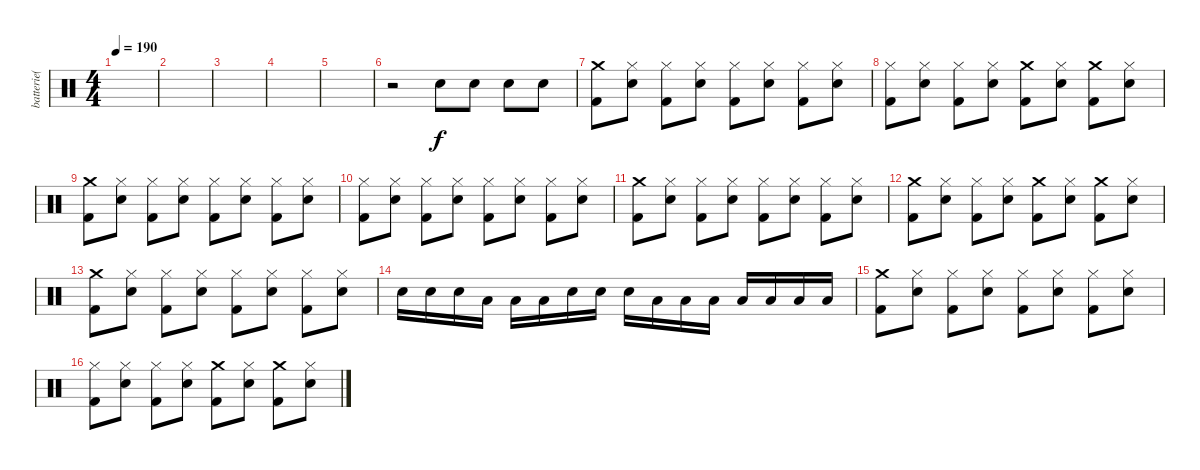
\track ("batterie( Byron McMackin )" "batterie( ") {instrument percussion}
\staff {score}
\articulation defaults
\ts (4 4)
\tempo 190
\clef neutral
\ks c
|
|
|
|
|
r.2 "Snare (hit) 2".8 "Snare (hit) 2".8 "Snare (hit) 2".8 "Snare (hit) 2".8 |
("Crash medium (hit)" "Kick (hit) 2").8 ("Hi-Hat (closed)" "Snare (hit) 2").8 ("Hi-Hat (closed)" "Kick (hit) 2").8 ("Hi-Hat (closed)" "Snare (hit) 2").8 ("Hi-Hat (closed)" "Kick (hit) 2").8 ("Hi-Hat (closed)" "Snare (hit) 2").8 ("Hi-Hat (closed)" "Kick (hit) 2").8 ("Hi-Hat (closed)" "Snare (hit) 2").8 |
("Hi-Hat (closed)" "Kick (hit) 2").8 ("Hi-Hat (closed)" "Snare (hit) 2").8 ("Hi-Hat (closed)" "Kick (hit) 2").8 ("Hi-Hat (closed)" "Snare (hit) 2").8 ("Crash medium (hit)" "Kick (hit) 2").8 ("Hi-Hat (closed)" "Snare (hit) 2").8 ("Crash medium (hit)" "Kick (hit) 2").8 ("Hi-Hat (closed)" "Snare (hit) 2").8 |
("Crash medium (hit)" "Kick (hit) 2").8 ("Hi-Hat (closed)" "Snare (hit) 2").8 ("Hi-Hat (closed)" "Kick (hit) 2").8 ("Hi-Hat (closed)" "Snare (hit) 2").8 ("Hi-Hat (closed)" "Kick (hit) 2").8 ("Hi-Hat (closed)" "Snare (hit) 2").8 ("Hi-Hat (closed)" "Kick (hit) 2").8 ("Hi-Hat (closed)" "Snare (hit) 2").8 |
("Hi-Hat (closed)" "Kick (hit) 2").8 ("Hi-Hat (closed)" "Snare (hit) 2").8 ("Hi-Hat (closed)" "Kick (hit) 2").8 ("Hi-Hat (closed)" "Snare (hit) 2").8 ("Hi-Hat (closed)" "Kick (hit) 2").8 ("Hi-Hat (closed)" "Snare (hit) 2").8 ("Hi-Hat (closed)" "Kick (hit) 2").8 ("Hi-Hat (closed)" "Snare (hit) 2").8 |
("Crash medium (hit)" "Kick (hit) 2").8 ("Hi-Hat (closed)" "Snare (hit) 2").8 ("Hi-Hat (closed)" "Kick (hit) 2").8 ("Hi-Hat (closed)" "Snare (hit) 2").8 ("Hi-Hat (closed)" "Kick (hit) 2").8 ("Hi-Hat (closed)" "Snare (hit) 2").8 ("Hi-Hat (closed)" "Kick (hit) 2").8 ("Hi-Hat (closed)" "Snare (hit) 2").8 |
("Crash medium (hit)" "Kick (hit) 2").8 ("Hi-Hat (closed)" "Snare (hit) 2").8 ("Hi-Hat (closed)" "Kick (hit) 2").8 ("Hi-Hat (closed)" "Snare (hit) 2").8 ("Crash medium (hit)" "Kick (hit) 2").8 ("Hi-Hat (closed)" "Snare (hit) 2").8 ("Crash medium (hit)" "Kick (hit) 2").8 ("Hi-Hat (closed)" "Snare (hit) 2").8 |
("Crash medium (hit)" "Kick (hit) 2").8 ("Hi-Hat (closed)" "Snare (hit) 2").8 ("Hi-Hat (closed)" "Kick (hit) 2").8 ("Hi-Hat (closed)" "Snare (hit) 2").8 ("Hi-Hat (closed)" "Kick (hit) 2").8 ("Hi-Hat (closed)" "Snare (hit) 2").8 ("Hi-Hat (closed)" "Kick (hit) 2").8 ("Hi-Hat (closed)" "Snare (hit) 2").8 |
"Snare (hit) 2".16 "Snare (hit) 2".16 "Snare (hit) 2".16 "Low Tom (hit)".16 "Low Tom (hit)".16 "Low Tom (hit)".16 "Snare (hit) 2".16 "Snare (hit) 2".16 "Snare (hit) 2".16 "Low Tom (hit)".16 "Low Tom (hit)".16 "Low Tom (hit)".16 "Low Tom (hit)".16 "Low Floor Tom (hit)".16 "Low Floor Tom (hit)".16 "Low Floor Tom (hit)".16 |
("Crash medium (hit)" "Kick (hit) 2").8 ("Hi-Hat (closed)" "Snare (hit) 2").8 ("Hi-Hat (closed)" "Kick (hit) 2").8 ("Hi-Hat (closed)" "Snare (hit) 2").8 ("Hi-Hat (closed)" "Kick (hit) 2").8 ("Hi-Hat (closed)" "Snare (hit) 2").8 ("Hi-Hat (closed)" "Kick (hit) 2").8 ("Hi-Hat (closed)" "Snare (hit) 2").8 |
("Hi-Hat (closed)" "Kick (hit) 2").8 ("Hi-Hat (closed)" "Snare (hit) 2").8 ("Hi-Hat (closed)" "Kick (hit) 2").8 ("Hi-Hat (closed)" "Snare (hit) 2").8 ("Crash medium (hit)" "Kick (hit) 2").8 ("Hi-Hat (closed)" "Snare (hit) 2").8 ("Crash medium (hit)" "Kick (hit) 2").8 ("Hi-Hat (closed)" "Snare (hit) 2").8
